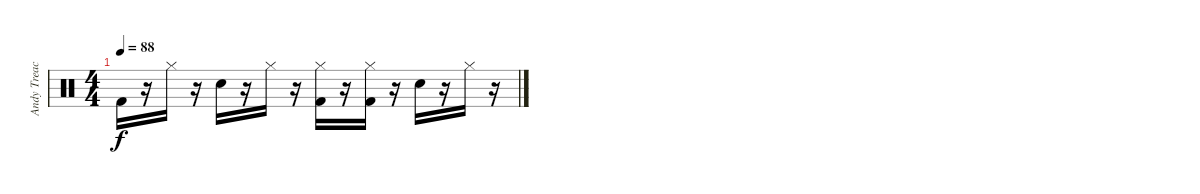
\track ("Andy Treacey" "Andy Treac") {instrument percussion}
\staff {score}
\articulation defaults
\ts (4 4)
\tempo 88
\clef neutral
\ks c "Kick (hit) 2".16{dy f}
r.16 "Hi-Hat (closed)".16 r.16 "Electric Snare (hit)".16 r.16 "Hi-Hat (closed)".16 r.16 ("Hi-Hat (closed)" "Kick (hit) 2").16 r.16 ("Hi-Hat (closed)" "Kick (hit) 2").16 r.16 "Electric Snare (hit)".16 r.16 "Hi-Hat (closed)".16 r.16
